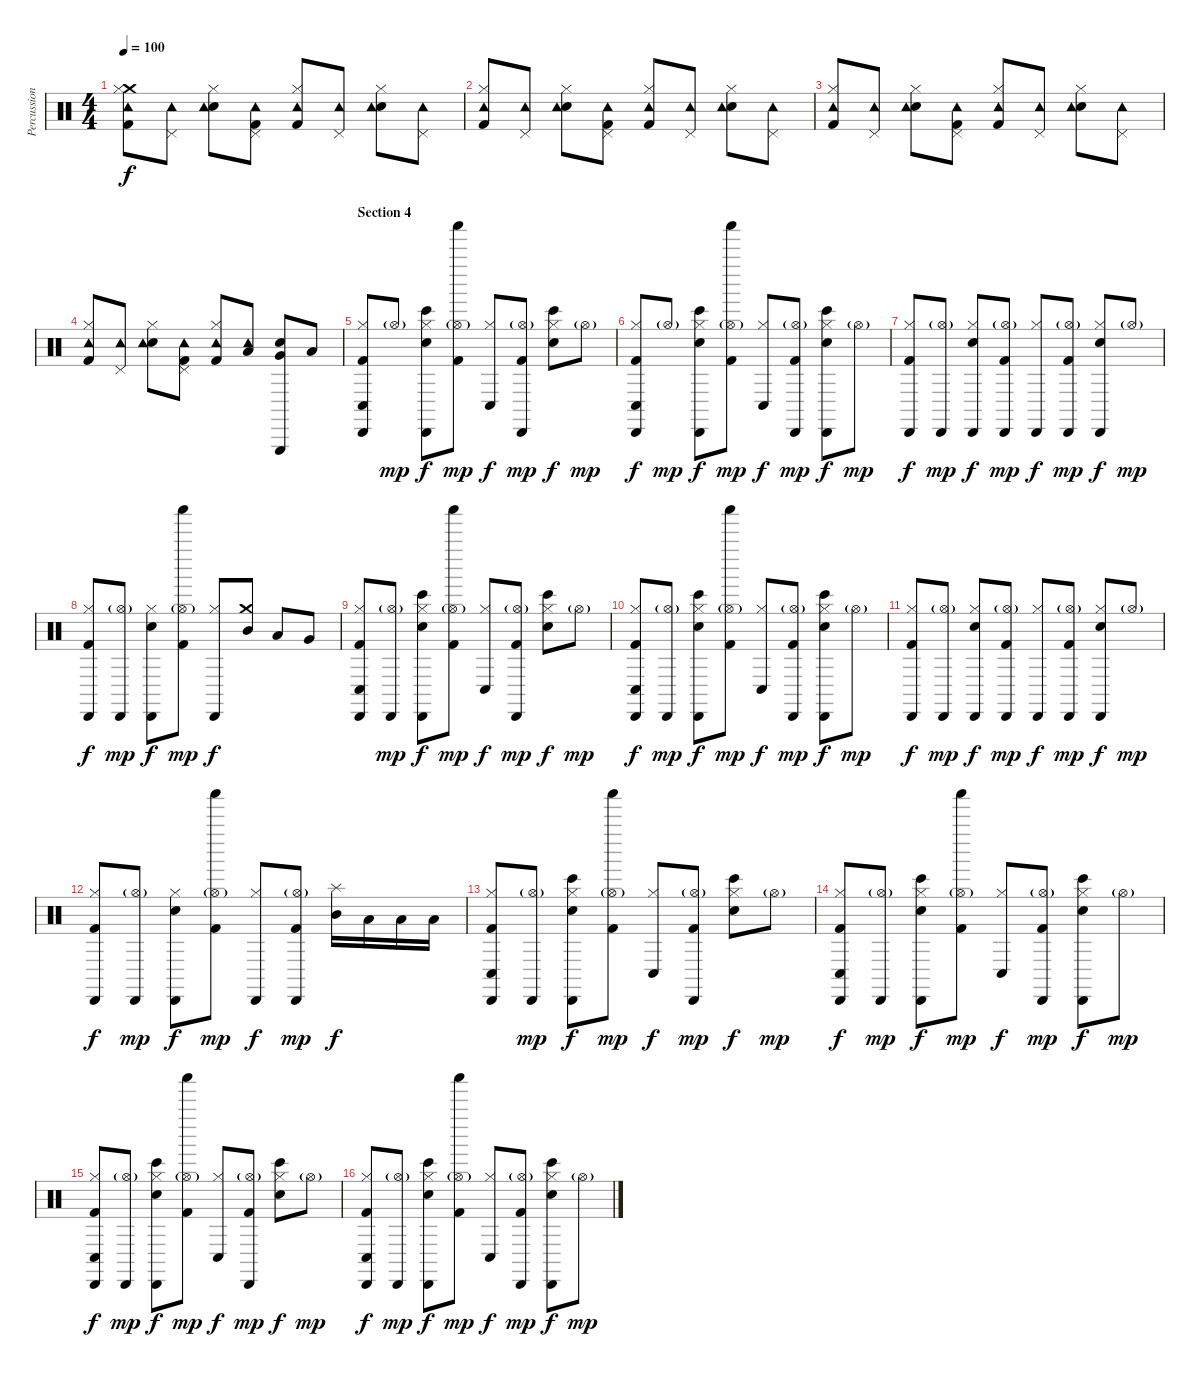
\track ("Percussion" "Percussion") {instrument percussion}
\staff {score}
\articulation defaults
\ts (4 4)
\tempo 100
\clef neutral
\ks c
("Crash medium (hit)" "Kick (hit) 2" "Hi-Hat (closed)" "Tambourine (hit)").8{dy f} ("Pedal Hi-Hat (hit)" "Tambourine (hit)").8 ("Electric Snare (hit)" "Hi-Hat (closed)" "Tambourine (hit)").8 ("Kick (hit) 2" "Pedal Hi-Hat (hit)" "Tambourine (hit)").8 ("Kick (hit) 2" "Hi-Hat (closed)" "Tambourine (hit)").8 ("Pedal Hi-Hat (hit)" "Tambourine (hit)").8 ("Electric Snare (hit)" "Hi-Hat (closed)" "Tambourine (hit)").8 ("Pedal Hi-Hat (hit)" "Tambourine (hit)").8 |
("Kick (hit) 2" "Hi-Hat (closed)" "Tambourine (hit)").8 ("Pedal Hi-Hat (hit)" "Tambourine (hit)").8 ("Electric Snare (hit)" "Hi-Hat (closed)" "Tambourine (hit)").8 ("Kick (hit) 2" "Pedal Hi-Hat (hit)" "Tambourine (hit)").8 ("Kick (hit) 2" "Hi-Hat (closed)" "Tambourine (hit)").8 ("Pedal Hi-Hat (hit)" "Tambourine (hit)").8 ("Electric Snare (hit)" "Hi-Hat (closed)" "Tambourine (hit)").8 ("Pedal Hi-Hat (hit)" "Tambourine (hit)").8 |
("Kick (hit) 2" "Hi-Hat (closed)" "Tambourine (hit)").8 ("Pedal Hi-Hat (hit)" "Tambourine (hit)").8 ("Electric Snare (hit)" "Hi-Hat (closed)" "Tambourine (hit)").8 ("Kick (hit) 2" "Pedal Hi-Hat (hit)" "Tambourine (hit)").8 ("Kick (hit) 2" "Hi-Hat (closed)" "Tambourine (hit)").8 ("Pedal Hi-Hat (hit)" "Tambourine (hit)").8 ("Electric Snare (hit)" "Hi-Hat (closed)" "Tambourine (hit)").8 ("Pedal Hi-Hat (hit)" "Tambourine (hit)").8 |
("Kick (hit) 2" "Hi-Hat (closed)" "Tambourine (hit)").8 ("Pedal Hi-Hat (hit)" "Tambourine (hit)").8 ("Electric Snare (hit)" "Hi-Hat (closed)" "Tambourine (hit)").8 ("Kick (hit) 2" "Pedal Hi-Hat (hit)" "Tambourine (hit)").8 ("Kick (hit) 2" "Hi-Hat (closed)" "Tambourine (hit)").8 ("Low Tom (hit)" "Tambourine (hit)").8 ("Very Low Tom (hit)" "Electric Snare (hit)" "Triangle (hit)").8{bd 120} "Low Tom (hit)".8 |
\section ("" "Section 4")
("Hi-Hat (closed)" "Kick (hit) 2" "Conga low (hit)" "Cabasa (hit)").8 "Hi-Hat (open)"{g}.8{dy mp} ("Hi-Hat (closed)" "Electric Snare (hit)" "Bongo High (hit)" "Cabasa (hit)").8{dy f} ("Hi-Hat (open)"{g} "Kick (hit) 2" "Shaker (hit)").8{dy mp} ("Hi-Hat (closed)" "Conga low (hit)").8{dy f} ("Hi-Hat (open)"{g} "Kick (hit) 2" "Cabasa (hit)").8{dy mp} ("Hi-Hat (closed)" "Electric Snare (hit)" "Bongo High (hit)").8{dy f} "Hi-Hat (open)"{g}.8{dy mp} |
("Hi-Hat (closed)" "Kick (hit) 2" "Conga low (hit)" "Cabasa (hit)").8{dy f} "Hi-Hat (open)"{g}.8{dy mp} ("Hi-Hat (closed)" "Electric Snare (hit)" "Bongo High (hit)" "Cabasa (hit)").8{dy f} ("Hi-Hat (open)"{g} "Kick (hit) 2" "Shaker (hit)").8{dy mp} ("Hi-Hat (closed)" "Conga low (hit)").8{dy f} ("Hi-Hat (open)"{g} "Kick (hit) 2" "Cabasa (hit)").8{dy mp} ("Hi-Hat (closed)" "Electric Snare (hit)" "Bongo High (hit)" "Cabasa (hit)").8{dy f} "Hi-Hat (open)"{g}.8{dy mp} |
("Hi-Hat (closed)" "Kick (hit) 2" "Cabasa (hit)").8{dy f} ("Hi-Hat (open)"{g} "Cabasa (hit)").8{dy mp} ("Hi-Hat (closed)" "Electric Snare (hit)" "Cabasa (hit)").8{dy f} ("Hi-Hat (open)"{g} "Kick (hit) 2" "Cabasa (hit)").8{dy mp} ("Hi-Hat (closed)" "Cabasa (hit)").8{dy f} ("Hi-Hat (open)"{g} "Kick (hit) 2" "Cabasa (hit)").8{dy mp} ("Hi-Hat (closed)" "Electric Snare (hit)" "Cabasa (hit)").8{dy f} "Hi-Hat (open)"{g}.8{dy mp} |
("Hi-Hat (closed)" "Kick (hit) 2" "Cabasa (hit)").8{dy f} ("Hi-Hat (open)"{g} "Cabasa (hit)").8{dy mp} ("Hi-Hat (closed)" "Electric Snare (hit)" "Cabasa (hit)").8{dy f} ("Hi-Hat (open)"{g} "Kick (hit) 2" "Shaker (hit)").8{dy mp} ("Hi-Hat (closed)" "Cabasa (hit)").8{dy f} ("Crash medium (hit)" "Mid Tom (hit)").8 "Low Tom (hit)".8 "Very Low Tom (hit)".8 |
("Hi-Hat (closed)" "Kick (hit) 2" "Conga low (hit)" "Cabasa (hit)").8 ("Hi-Hat (open)"{g} "Cabasa (hit)").8{dy mp} ("Hi-Hat (closed)" "Electric Snare (hit)" "Bongo High (hit)" "Cabasa (hit)").8{dy f} ("Hi-Hat (open)"{g} "Kick (hit) 2" "Shaker (hit)").8{dy mp} ("Hi-Hat (closed)" "Conga low (hit)").8{dy f} ("Hi-Hat (open)"{g} "Kick (hit) 2" "Cabasa (hit)").8{dy mp} ("Hi-Hat (closed)" "Electric Snare (hit)" "Bongo High (hit)").8{dy f} "Hi-Hat (open)"{g}.8{dy mp} |
("Hi-Hat (closed)" "Kick (hit) 2" "Conga low (hit)" "Cabasa (hit)").8{dy f} ("Hi-Hat (open)"{g} "Cabasa (hit)").8{dy mp} ("Hi-Hat (closed)" "Electric Snare (hit)" "Bongo High (hit)" "Cabasa (hit)").8{dy f} ("Hi-Hat (open)"{g} "Kick (hit) 2" "Shaker (hit)").8{dy mp} ("Hi-Hat (closed)" "Conga low (hit)").8{dy f} ("Hi-Hat (open)"{g} "Kick (hit) 2" "Cabasa (hit)").8{dy mp} ("Hi-Hat (closed)" "Electric Snare (hit)" "Bongo High (hit)" "Cabasa (hit)").8{dy f} "Hi-Hat (open)"{g}.8{dy mp} |
("Hi-Hat (closed)" "Kick (hit) 2" "Cabasa (hit)").8{dy f} ("Hi-Hat (open)"{g} "Cabasa (hit)").8{dy mp} ("Hi-Hat (closed)" "Electric Snare (hit)" "Cabasa (hit)").8{dy f} ("Hi-Hat (open)"{g} "Kick (hit) 2" "Cabasa (hit)").8{dy mp} ("Hi-Hat (closed)" "Cabasa (hit)").8{dy f} ("Hi-Hat (open)"{g} "Kick (hit) 2" "Cabasa (hit)").8{dy mp} ("Hi-Hat (closed)" "Electric Snare (hit)" "Cabasa (hit)").8{dy f} "Hi-Hat (open)"{g}.8{dy mp} |
("Hi-Hat (closed)" "Kick (hit) 2" "Cabasa (hit)").8{dy f} ("Hi-Hat (open)"{g} "Cabasa (hit)").8{dy mp} ("Hi-Hat (closed)" "Electric Snare (hit)" "Cabasa (hit)").8{dy f} ("Hi-Hat (open)"{g} "Kick (hit) 2" "Shaker (hit)").8{dy mp} ("Hi-Hat (closed)" "Cabasa (hit)").8{dy f} ("Hi-Hat (open)"{g} "Kick (hit) 2" "Cabasa (hit)").8{dy mp} ("Splash (hit)" "Mid Tom (hit)").16{dy f} "Low Tom (hit)".16 "Low Floor Tom (hit)".16 "Low Tom (hit)".16 |
("Hi-Hat (closed)" "Kick (hit) 2" "Conga low (hit)" "Cabasa (hit)").8 ("Hi-Hat (open)"{g} "Cabasa (hit)").8{dy mp} ("Hi-Hat (closed)" "Electric Snare (hit)" "Bongo High (hit)" "Cabasa (hit)").8{dy f} ("Hi-Hat (open)"{g} "Kick (hit) 2" "Shaker (hit)").8{dy mp} ("Hi-Hat (closed)" "Conga low (hit)").8{dy f} ("Hi-Hat (open)"{g} "Kick (hit) 2" "Cabasa (hit)").8{dy mp} ("Hi-Hat (closed)" "Electric Snare (hit)" "Bongo High (hit)").8{dy f} "Hi-Hat (open)"{g}.8{dy mp} |
("Hi-Hat (closed)" "Kick (hit) 2" "Conga low (hit)" "Cabasa (hit)").8{dy f} ("Hi-Hat (open)"{g} "Cabasa (hit)").8{dy mp} ("Hi-Hat (closed)" "Electric Snare (hit)" "Bongo High (hit)" "Cabasa (hit)").8{dy f} ("Hi-Hat (open)"{g} "Kick (hit) 2" "Shaker (hit)").8{dy mp} ("Hi-Hat (closed)" "Conga low (hit)").8{dy f} ("Hi-Hat (open)"{g} "Kick (hit) 2" "Cabasa (hit)").8{dy mp} ("Hi-Hat (closed)" "Electric Snare (hit)" "Bongo High (hit)" "Cabasa (hit)").8{dy f} "Hi-Hat (open)"{g}.8{dy mp} |
("Hi-Hat (closed)" "Kick (hit) 2" "Conga low (hit)" "Cabasa (hit)").8{dy f} ("Hi-Hat (open)"{g} "Cabasa (hit)").8{dy mp} ("Hi-Hat (closed)" "Electric Snare (hit)" "Bongo High (hit)" "Cabasa (hit)").8{dy f} ("Hi-Hat (open)"{g} "Kick (hit) 2" "Shaker (hit)").8{dy mp} ("Hi-Hat (closed)" "Conga low (hit)").8{dy f} ("Hi-Hat (open)"{g} "Kick (hit) 2" "Cabasa (hit)").8{dy mp} ("Hi-Hat (closed)" "Electric Snare (hit)" "Bongo High (hit)").8{dy f} "Hi-Hat (open)"{g}.8{dy mp} |
("Hi-Hat (closed)" "Kick (hit) 2" "Conga low (hit)" "Cabasa (hit)").8{dy f} ("Hi-Hat (open)"{g} "Cabasa (hit)").8{dy mp} ("Hi-Hat (closed)" "Electric Snare (hit)" "Bongo High (hit)" "Cabasa (hit)").8{dy f} ("Hi-Hat (open)"{g} "Kick (hit) 2" "Shaker (hit)").8{dy mp} ("Hi-Hat (closed)" "Conga low (hit)").8{dy f} ("Hi-Hat (open)"{g} "Kick (hit) 2" "Cabasa (hit)").8{dy mp} ("Hi-Hat (closed)" "Electric Snare (hit)" "Bongo High (hit)" "Cabasa (hit)").8{dy f} "Hi-Hat (open)"{g}.8{dy mp}
